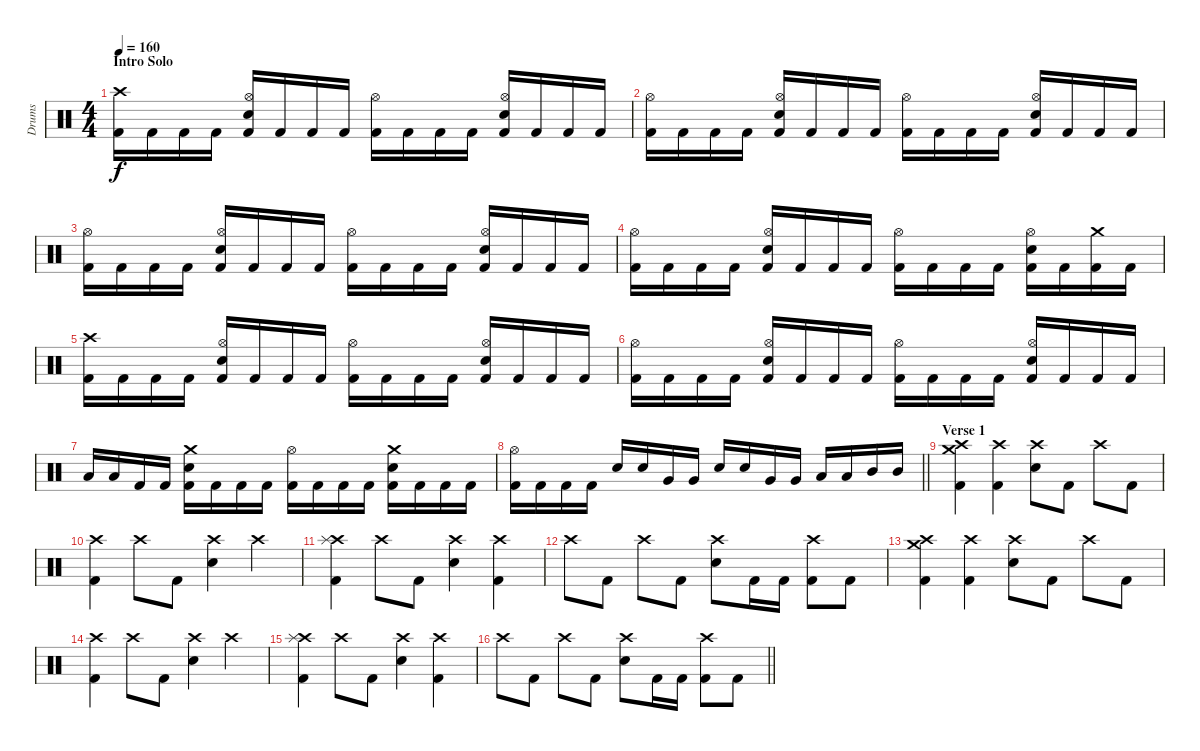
\track ("Drums" "Drums") {instrument percussion}
\staff {score}
\articulation defaults
\ts (4 4)
\section ("" "Intro Solo")
\tempo 160
\clef neutral
\ks c
("Crash high (hit)" "Kick (hit) 2").16{dy f} "Kick (hit) 2".16 "Kick (hit) 2".16 "Kick (hit) 2".16 ("Hi-Hat (open)" "Electric Snare (hit)" "Kick (hit) 2").16 "Kick (hit) 2".16 "Kick (hit) 2".16 "Kick (hit) 2".16 ("Hi-Hat (open)" "Kick (hit) 2").16 "Kick (hit) 2".16 "Kick (hit) 2".16 "Kick (hit) 2".16 ("Hi-Hat (open)" "Electric Snare (hit)" "Kick (hit) 2").16 "Kick (hit) 2".16 "Kick (hit) 2".16 "Kick (hit) 2".16 |
("Hi-Hat (open)" "Kick (hit) 2").16 "Kick (hit) 2".16 "Kick (hit) 2".16 "Kick (hit) 2".16 ("Hi-Hat (open)" "Electric Snare (hit)" "Kick (hit) 2").16 "Kick (hit) 2".16 "Kick (hit) 2".16 "Kick (hit) 2".16 ("Hi-Hat (open)" "Kick (hit) 2").16 "Kick (hit) 2".16 "Kick (hit) 2".16 "Kick (hit) 2".16 ("Hi-Hat (open)" "Electric Snare (hit)" "Kick (hit) 2").16 "Kick (hit) 2".16 "Kick (hit) 2".16 "Kick (hit) 2".16 |
("Hi-Hat (open)" "Kick (hit) 2").16 "Kick (hit) 2".16 "Kick (hit) 2".16 "Kick (hit) 2".16 ("Hi-Hat (open)" "Electric Snare (hit)" "Kick (hit) 2").16 "Kick (hit) 2".16 "Kick (hit) 2".16 "Kick (hit) 2".16 ("Hi-Hat (open)" "Kick (hit) 2").16 "Kick (hit) 2".16 "Kick (hit) 2".16 "Kick (hit) 2".16 ("Hi-Hat (open)" "Electric Snare (hit)" "Kick (hit) 2").16 "Kick (hit) 2".16 "Kick (hit) 2".16 "Kick (hit) 2".16 |
("Hi-Hat (open)" "Kick (hit) 2").16 "Kick (hit) 2".16 "Kick (hit) 2".16 "Kick (hit) 2".16 ("Hi-Hat (open)" "Electric Snare (hit)" "Kick (hit) 2").16 "Kick (hit) 2".16 "Kick (hit) 2".16 "Kick (hit) 2".16 ("Hi-Hat (open)" "Kick (hit) 2").16 "Kick (hit) 2".16 "Kick (hit) 2".16 "Kick (hit) 2".16 ("Hi-Hat (open)" "Electric Snare (hit)" "Kick (hit) 2").16 "Kick (hit) 2".16 ("Crash medium (hit)" "Kick (hit) 2").16 "Kick (hit) 2".16 |
("Crash high (hit)" "Kick (hit) 2").16 "Kick (hit) 2".16 "Kick (hit) 2".16 "Kick (hit) 2".16 ("Hi-Hat (open)" "Electric Snare (hit)" "Kick (hit) 2").16 "Kick (hit) 2".16 "Kick (hit) 2".16 "Kick (hit) 2".16 ("Hi-Hat (open)" "Kick (hit) 2").16 "Kick (hit) 2".16 "Kick (hit) 2".16 "Kick (hit) 2".16 ("Hi-Hat (open)" "Electric Snare (hit)" "Kick (hit) 2").16 "Kick (hit) 2".16 "Kick (hit) 2".16 "Kick (hit) 2".16 |
("Hi-Hat (open)" "Kick (hit) 2").16 "Kick (hit) 2".16 "Kick (hit) 2".16 "Kick (hit) 2".16 ("Hi-Hat (open)" "Electric Snare (hit)" "Kick (hit) 2").16 "Kick (hit) 2".16 "Kick (hit) 2".16 "Kick (hit) 2".16 ("Hi-Hat (open)" "Kick (hit) 2").16 "Kick (hit) 2".16 "Kick (hit) 2".16 "Kick (hit) 2".16 ("Hi-Hat (open)" "Electric Snare (hit)" "Kick (hit) 2").16 "Kick (hit) 2".16 "Kick (hit) 2".16 "Kick (hit) 2".16 |
"Low Floor Tom (hit)".16 "Low Floor Tom (hit)".16 "Kick (hit) 2".16 "Kick (hit) 2".16 ("Crash medium (hit)" "Electric Snare (hit)" "Kick (hit) 2").16 "Kick (hit) 2".16 "Kick (hit) 2".16 "Kick (hit) 2".16 ("Hi-Hat (open)" "Kick (hit) 2").16 "Kick (hit) 2".16 "Kick (hit) 2".16 "Kick (hit) 2".16 ("Crash medium (hit)" "Electric Snare (hit)" "Kick (hit) 2").16 "Kick (hit) 2".16 "Kick (hit) 2".16 "Kick (hit) 2".16 |
\barLineRight lightlight
("Hi-Hat (open)" "Kick (hit) 2").16 "Kick (hit) 2".16 "Kick (hit) 2".16 "Kick (hit) 2".16 "Electric Snare (hit)".16 "Electric Snare (hit)".16 "Very Low Tom (hit)".16 "Very Low Tom (hit)".16 "Electric Snare (hit)".16 "Electric Snare (hit)".16 "Very Low Tom (hit)".16 "Very Low Tom (hit)".16 "Low Tom (hit)".16 "Low Tom (hit)".16 "Mid Tom (hit)".16 "Mid Tom (hit)".16 |
\section ("" "Verse 1")
("Crash high (hit)" "Crash medium (hit)" "Kick (hit) 2").4 ("Crash high (hit)" "Kick (hit) 2").4 ("Crash high (hit)" "Electric Snare (hit)").8 "Kick (hit) 2".8 "Crash high (hit)".8 "Kick (hit) 2".8 |
("Crash high (hit)" "Kick (hit) 2").4 "Crash high (hit)".8 "Kick (hit) 2".8 ("Crash high (hit)" "Electric Snare (hit)").4 "Crash high (hit)".4 |
("Crash high (hit)" "Splash (hit)" "Kick (hit) 2").4 "Crash high (hit)".8 "Kick (hit) 2".8 ("Crash high (hit)" "Electric Snare (hit)").4 ("Crash high (hit)" "Kick (hit) 2").4 |
"Crash high (hit)".8 "Kick (hit) 2".8 "Crash high (hit)".8 "Kick (hit) 2".8 ("Crash high (hit)" "Electric Snare (hit)").8 "Kick (hit) 2".16 "Kick (hit) 2".16 ("Crash high (hit)" "Kick (hit) 2").8 "Kick (hit) 2".8 |
("Crash high (hit)" "Crash medium (hit)" "Kick (hit) 2").4 ("Crash high (hit)" "Kick (hit) 2").4 ("Crash high (hit)" "Electric Snare (hit)").8 "Kick (hit) 2".8 "Crash high (hit)".8 "Kick (hit) 2".8 |
("Crash high (hit)" "Kick (hit) 2").4 "Crash high (hit)".8 "Kick (hit) 2".8 ("Crash high (hit)" "Electric Snare (hit)").4 "Crash high (hit)".4 |
("Crash high (hit)" "Splash (hit)" "Kick (hit) 2").4 "Crash high (hit)".8 "Kick (hit) 2".8 ("Crash high (hit)" "Electric Snare (hit)").4 ("Crash high (hit)" "Kick (hit) 2").4 |
\barLineRight lightlight "Crash high (hit)".8 "Kick (hit) 2".8 "Crash high (hit)".8 "Kick (hit) 2".8
("Crash high (hit)" "Electric Snare (hit)").8 "Kick (hit) 2".16 "Kick (hit) 2".16 ("Crash high (hit)" "Kick (hit) 2").8 "Kick (hit) 2".8
